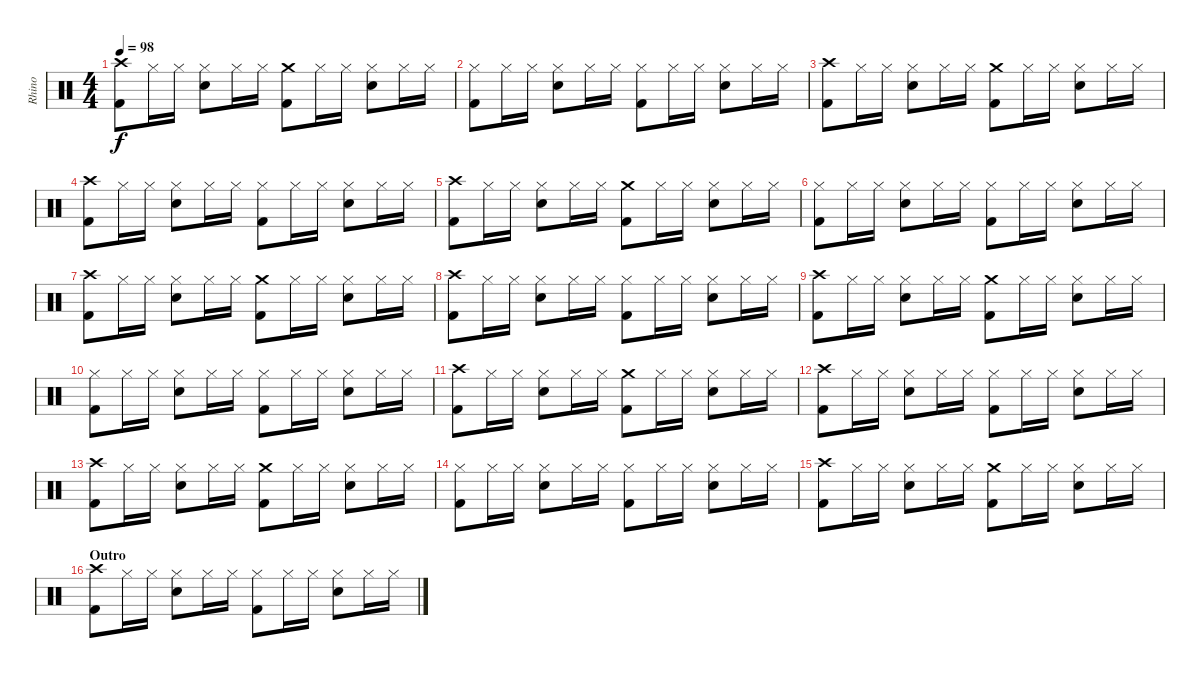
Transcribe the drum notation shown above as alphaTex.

\track ("Rhino" "Rhino") {instrument percussion}
\staff {score}
\articulation defaults
\ts (4 4)
\tempo 98
\clef neutral
\ks c
("Crash high (hit)" "Kick (hit) 2").8{dy f} "Hi-Hat (closed)".16 "Hi-Hat (closed)".16 ("Hi-Hat (closed)" "Snare (hit) 2").8 "Hi-Hat (closed)".16 "Hi-Hat (closed)".16 ("Crash medium (hit)" "Kick (hit) 2").8 "Hi-Hat (closed)".16 "Hi-Hat (closed)".16 ("Hi-Hat (closed)" "Snare (hit) 2").8 "Hi-Hat (closed)".16 "Hi-Hat (closed)".16 |
("Hi-Hat (closed)" "Kick (hit) 2").8 "Hi-Hat (closed)".16 "Hi-Hat (closed)".16 ("Hi-Hat (closed)" "Snare (hit) 2").8 "Hi-Hat (closed)".16 "Hi-Hat (closed)".16 ("Hi-Hat (closed)" "Kick (hit) 2").8 "Hi-Hat (closed)".16 "Hi-Hat (closed)".16 ("Hi-Hat (closed)" "Snare (hit) 2").8 "Hi-Hat (closed)".16 "Hi-Hat (closed)".16 |
("Crash high (hit)" "Kick (hit) 2").8 "Hi-Hat (closed)".16 "Hi-Hat (closed)".16 ("Hi-Hat (closed)" "Snare (hit) 2").8 "Hi-Hat (closed)".16 "Hi-Hat (closed)".16 ("Crash medium (hit)" "Kick (hit) 2").8 "Hi-Hat (closed)".16 "Hi-Hat (closed)".16 ("Hi-Hat (closed)" "Snare (hit) 2").8 "Hi-Hat (closed)".16 "Hi-Hat (closed)".16 |
("Crash high (hit)" "Kick (hit) 2").8 "Hi-Hat (closed)".16 "Hi-Hat (closed)".16 ("Hi-Hat (closed)" "Snare (hit) 2").8 "Hi-Hat (closed)".16 "Hi-Hat (closed)".16 ("Hi-Hat (closed)" "Kick (hit) 2").8 "Hi-Hat (closed)".16 "Hi-Hat (closed)".16 ("Hi-Hat (closed)" "Snare (hit) 2").8 "Hi-Hat (closed)".16 "Hi-Hat (closed)".16 |
("Crash high (hit)" "Kick (hit) 2").8 "Hi-Hat (closed)".16 "Hi-Hat (closed)".16 ("Hi-Hat (closed)" "Snare (hit) 2").8 "Hi-Hat (closed)".16 "Hi-Hat (closed)".16 ("Crash medium (hit)" "Kick (hit) 2").8 "Hi-Hat (closed)".16 "Hi-Hat (closed)".16 ("Hi-Hat (closed)" "Snare (hit) 2").8 "Hi-Hat (closed)".16 "Hi-Hat (closed)".16 |
("Hi-Hat (closed)" "Kick (hit) 2").8 "Hi-Hat (closed)".16 "Hi-Hat (closed)".16 ("Hi-Hat (closed)" "Snare (hit) 2").8 "Hi-Hat (closed)".16 "Hi-Hat (closed)".16 ("Hi-Hat (closed)" "Kick (hit) 2").8 "Hi-Hat (closed)".16 "Hi-Hat (closed)".16 ("Hi-Hat (closed)" "Snare (hit) 2").8 "Hi-Hat (closed)".16 "Hi-Hat (closed)".16 |
("Crash high (hit)" "Kick (hit) 2").8 "Hi-Hat (closed)".16 "Hi-Hat (closed)".16 ("Hi-Hat (closed)" "Snare (hit) 2").8 "Hi-Hat (closed)".16 "Hi-Hat (closed)".16 ("Crash medium (hit)" "Kick (hit) 2").8 "Hi-Hat (closed)".16 "Hi-Hat (closed)".16 ("Hi-Hat (closed)" "Snare (hit) 2").8 "Hi-Hat (closed)".16 "Hi-Hat (closed)".16 |
("Crash high (hit)" "Kick (hit) 2").8 "Hi-Hat (closed)".16 "Hi-Hat (closed)".16 ("Hi-Hat (closed)" "Snare (hit) 2").8 "Hi-Hat (closed)".16 "Hi-Hat (closed)".16 ("Hi-Hat (closed)" "Kick (hit) 2").8 "Hi-Hat (closed)".16 "Hi-Hat (closed)".16 ("Hi-Hat (closed)" "Snare (hit) 2").8 "Hi-Hat (closed)".16 "Hi-Hat (closed)".16 |
("Crash high (hit)" "Kick (hit) 2").8 "Hi-Hat (closed)".16 "Hi-Hat (closed)".16 ("Hi-Hat (closed)" "Snare (hit) 2").8 "Hi-Hat (closed)".16 "Hi-Hat (closed)".16 ("Crash medium (hit)" "Kick (hit) 2").8 "Hi-Hat (closed)".16 "Hi-Hat (closed)".16 ("Hi-Hat (closed)" "Snare (hit) 2").8 "Hi-Hat (closed)".16 "Hi-Hat (closed)".16 |
("Hi-Hat (closed)" "Kick (hit) 2").8 "Hi-Hat (closed)".16 "Hi-Hat (closed)".16 ("Hi-Hat (closed)" "Snare (hit) 2").8 "Hi-Hat (closed)".16 "Hi-Hat (closed)".16 ("Hi-Hat (closed)" "Kick (hit) 2").8 "Hi-Hat (closed)".16 "Hi-Hat (closed)".16 ("Hi-Hat (closed)" "Snare (hit) 2").8 "Hi-Hat (closed)".16 "Hi-Hat (closed)".16 |
("Crash high (hit)" "Kick (hit) 2").8 "Hi-Hat (closed)".16 "Hi-Hat (closed)".16 ("Hi-Hat (closed)" "Snare (hit) 2").8 "Hi-Hat (closed)".16 "Hi-Hat (closed)".16 ("Crash medium (hit)" "Kick (hit) 2").8 "Hi-Hat (closed)".16 "Hi-Hat (closed)".16 ("Hi-Hat (closed)" "Snare (hit) 2").8 "Hi-Hat (closed)".16 "Hi-Hat (closed)".16 |
("Crash high (hit)" "Kick (hit) 2").8 "Hi-Hat (closed)".16 "Hi-Hat (closed)".16 ("Hi-Hat (closed)" "Snare (hit) 2").8 "Hi-Hat (closed)".16 "Hi-Hat (closed)".16 ("Hi-Hat (closed)" "Kick (hit) 2").8 "Hi-Hat (closed)".16 "Hi-Hat (closed)".16 ("Hi-Hat (closed)" "Snare (hit) 2").8 "Hi-Hat (closed)".16 "Hi-Hat (closed)".16 |
("Crash high (hit)" "Kick (hit) 2").8 "Hi-Hat (closed)".16 "Hi-Hat (closed)".16 ("Hi-Hat (closed)" "Snare (hit) 2").8 "Hi-Hat (closed)".16 "Hi-Hat (closed)".16 ("Crash medium (hit)" "Kick (hit) 2").8 "Hi-Hat (closed)".16 "Hi-Hat (closed)".16 ("Hi-Hat (closed)" "Snare (hit) 2").8 "Hi-Hat (closed)".16 "Hi-Hat (closed)".16 |
("Hi-Hat (closed)" "Kick (hit) 2").8 "Hi-Hat (closed)".16 "Hi-Hat (closed)".16 ("Hi-Hat (closed)" "Snare (hit) 2").8 "Hi-Hat (closed)".16 "Hi-Hat (closed)".16 ("Hi-Hat (closed)" "Kick (hit) 2").8 "Hi-Hat (closed)".16 "Hi-Hat (closed)".16 ("Hi-Hat (closed)" "Snare (hit) 2").8 "Hi-Hat (closed)".16 "Hi-Hat (closed)".16 |
("Crash high (hit)" "Kick (hit) 2").8 "Hi-Hat (closed)".16 "Hi-Hat (closed)".16 ("Hi-Hat (closed)" "Snare (hit) 2").8 "Hi-Hat (closed)".16 "Hi-Hat (closed)".16 ("Crash medium (hit)" "Kick (hit) 2").8 "Hi-Hat (closed)".16 "Hi-Hat (closed)".16 ("Hi-Hat (closed)" "Snare (hit) 2").8 "Hi-Hat (closed)".16 "Hi-Hat (closed)".16 |
\section ("" "Outro")
("Crash high (hit)" "Kick (hit) 2").8 "Hi-Hat (closed)".16 "Hi-Hat (closed)".16 ("Hi-Hat (closed)" "Snare (hit) 2").8 "Hi-Hat (closed)".16 "Hi-Hat (closed)".16 ("Hi-Hat (closed)" "Kick (hit) 2").8 "Hi-Hat (closed)".16 "Hi-Hat (closed)".16 ("Hi-Hat (closed)" "Snare (hit) 2").8 "Hi-Hat (closed)".16 "Hi-Hat (closed)".16
